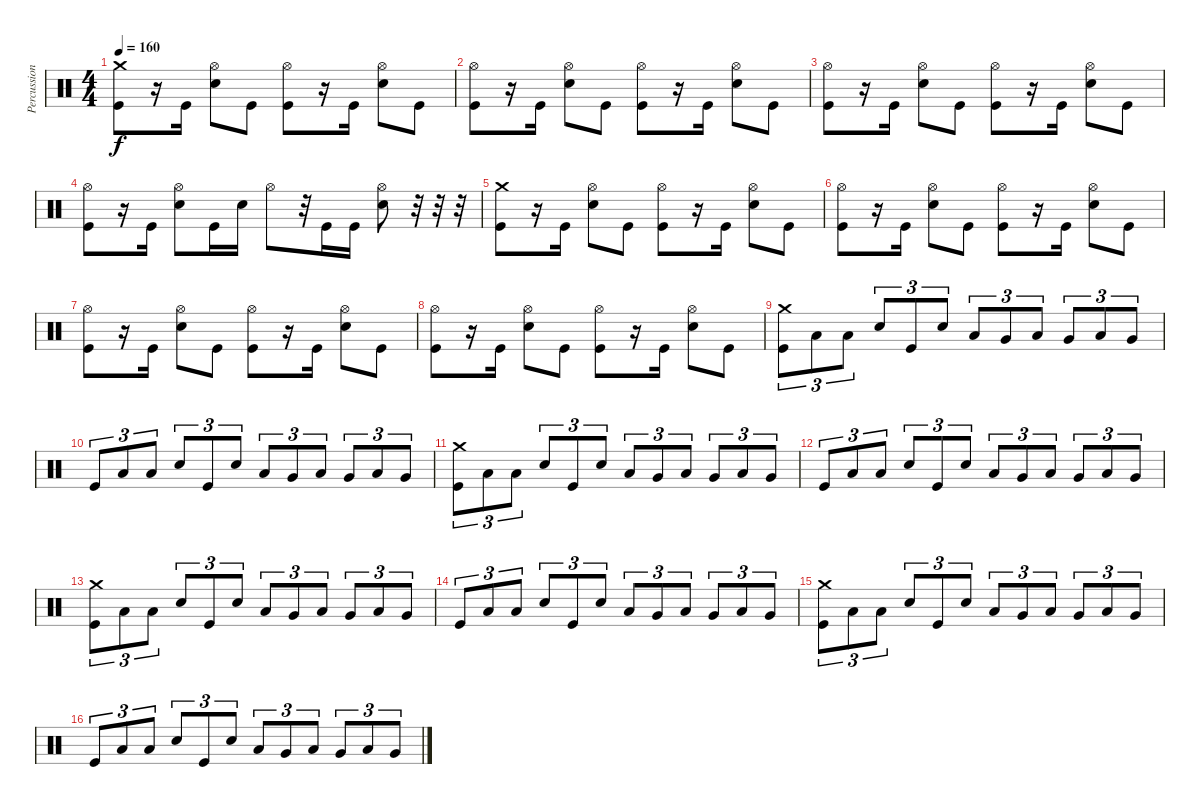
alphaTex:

\track ("Percussion" "Percussion") {instrument percussion}
\staff {score}
\articulation defaults
\ts (4 4)
\tempo 160
\clef neutral
\ks c
("Crash medium (hit)" "Kick (hit)").8{dy f} r.16 "Kick (hit)".16 ("Hi-Hat (open)" "Electric Snare (hit)").8 "Kick (hit)".8 ("Hi-Hat (open)" "Kick (hit)").8 r.16 "Kick (hit)".16 ("Hi-Hat (open)" "Electric Snare (hit)").8 "Kick (hit)".8 |
("Hi-Hat (open)" "Kick (hit)").8 r.16 "Kick (hit)".16 ("Hi-Hat (open)" "Electric Snare (hit)").8 "Kick (hit)".8 ("Hi-Hat (open)" "Kick (hit)").8 r.16 "Kick (hit)".16 ("Hi-Hat (open)" "Electric Snare (hit)").8 "Kick (hit)".8 |
("Hi-Hat (open)" "Kick (hit)").8 r.16 "Kick (hit)".16 ("Hi-Hat (open)" "Electric Snare (hit)").8 "Kick (hit)".8 ("Hi-Hat (open)" "Kick (hit)").8 r.16 "Kick (hit)".16 ("Hi-Hat (open)" "Electric Snare (hit)").8 "Kick (hit)".8 |
("Hi-Hat (open)" "Kick (hit)").8 r.16 "Kick (hit)".16 ("Hi-Hat (open)" "Electric Snare (hit)").8 "Kick (hit)".16 "Electric Snare (hit)".16 "Hi-Hat (open)".8 r.32 "Kick (hit)".16 "Kick (hit)".16 ("Hi-Hat (open)" "Electric Snare (hit)").8 r.32 r.32 r.32 |
("Crash medium (hit)" "Kick (hit)").8 r.16 "Kick (hit)".16 ("Hi-Hat (open)" "Electric Snare (hit)").8 "Kick (hit)".8 ("Hi-Hat (open)" "Kick (hit)").8 r.16 "Kick (hit)".16 ("Hi-Hat (open)" "Electric Snare (hit)").8 "Kick (hit)".8 |
("Hi-Hat (open)" "Kick (hit)").8 r.16 "Kick (hit)".16 ("Hi-Hat (open)" "Electric Snare (hit)").8 "Kick (hit)".8 ("Hi-Hat (open)" "Kick (hit)").8 r.16 "Kick (hit)".16 ("Hi-Hat (open)" "Electric Snare (hit)").8 "Kick (hit)".8 |
("Hi-Hat (open)" "Kick (hit)").8 r.16 "Kick (hit)".16 ("Hi-Hat (open)" "Electric Snare (hit)").8 "Kick (hit)".8 ("Hi-Hat (open)" "Kick (hit)").8 r.16 "Kick (hit)".16 ("Hi-Hat (open)" "Electric Snare (hit)").8 "Kick (hit)".8 |
("Hi-Hat (open)" "Kick (hit)").8 r.16 "Kick (hit)".16 ("Hi-Hat (open)" "Electric Snare (hit)").8 "Kick (hit)".8 ("Hi-Hat (open)" "Kick (hit)").8 r.16 "Kick (hit)".16 ("Hi-Hat (open)" "Electric Snare (hit)").8 "Kick (hit)".8 |
("Crash medium (hit)" "Kick (hit)").8{tu (3 2)} "Low Floor Tom (hit)".8{tu (3 2)} "Low Floor Tom (hit)".8{tu (3 2)} "Electric Snare (hit)".8{tu (3 2)} "Kick (hit)".8{tu (3 2)} "Electric Snare (hit)".8{tu (3 2)} "Low Floor Tom (hit)".8{tu (3 2)} "Very Low Tom (hit)".8{tu (3 2)} "Low Floor Tom (hit)".8{tu (3 2)} "Very Low Tom (hit)".8{tu (3 2)} "Low Floor Tom (hit)".8{tu (3 2)} "Very Low Tom (hit)".8{tu (3 2)} |
"Kick (hit)".8{tu (3 2)} "Low Floor Tom (hit)".8{tu (3 2)} "Low Floor Tom (hit)".8{tu (3 2)} "Electric Snare (hit)".8{tu (3 2)} "Kick (hit)".8{tu (3 2)} "Electric Snare (hit)".8{tu (3 2)} "Low Floor Tom (hit)".8{tu (3 2)} "Very Low Tom (hit)".8{tu (3 2)} "Low Floor Tom (hit)".8{tu (3 2)} "Very Low Tom (hit)".8{tu (3 2)} "Low Floor Tom (hit)".8{tu (3 2)} "Very Low Tom (hit)".8{tu (3 2)} |
("Crash medium (hit)" "Kick (hit)").8{tu (3 2)} "Low Floor Tom (hit)".8{tu (3 2)} "Low Floor Tom (hit)".8{tu (3 2)} "Electric Snare (hit)".8{tu (3 2)} "Kick (hit)".8{tu (3 2)} "Electric Snare (hit)".8{tu (3 2)} "Low Floor Tom (hit)".8{tu (3 2)} "Very Low Tom (hit)".8{tu (3 2)} "Low Floor Tom (hit)".8{tu (3 2)} "Very Low Tom (hit)".8{tu (3 2)} "Low Floor Tom (hit)".8{tu (3 2)} "Very Low Tom (hit)".8{tu (3 2)} |
"Kick (hit)".8{tu (3 2)} "Low Floor Tom (hit)".8{tu (3 2)} "Low Floor Tom (hit)".8{tu (3 2)} "Electric Snare (hit)".8{tu (3 2)} "Kick (hit)".8{tu (3 2)} "Electric Snare (hit)".8{tu (3 2)} "Low Floor Tom (hit)".8{tu (3 2)} "Very Low Tom (hit)".8{tu (3 2)} "Low Floor Tom (hit)".8{tu (3 2)} "Very Low Tom (hit)".8{tu (3 2)} "Low Floor Tom (hit)".8{tu (3 2)} "Very Low Tom (hit)".8{tu (3 2)} |
("Crash medium (hit)" "Kick (hit)").8{tu (3 2)} "Low Floor Tom (hit)".8{tu (3 2)} "Low Floor Tom (hit)".8{tu (3 2)} "Electric Snare (hit)".8{tu (3 2)} "Kick (hit)".8{tu (3 2)} "Electric Snare (hit)".8{tu (3 2)} "Low Floor Tom (hit)".8{tu (3 2)} "Very Low Tom (hit)".8{tu (3 2)} "Low Floor Tom (hit)".8{tu (3 2)} "Very Low Tom (hit)".8{tu (3 2)} "Low Floor Tom (hit)".8{tu (3 2)} "Very Low Tom (hit)".8{tu (3 2)} |
"Kick (hit)".8{tu (3 2)} "Low Floor Tom (hit)".8{tu (3 2)} "Low Floor Tom (hit)".8{tu (3 2)} "Electric Snare (hit)".8{tu (3 2)} "Kick (hit)".8{tu (3 2)} "Electric Snare (hit)".8{tu (3 2)} "Low Floor Tom (hit)".8{tu (3 2)} "Very Low Tom (hit)".8{tu (3 2)} "Low Floor Tom (hit)".8{tu (3 2)} "Very Low Tom (hit)".8{tu (3 2)} "Low Floor Tom (hit)".8{tu (3 2)} "Very Low Tom (hit)".8{tu (3 2)} |
("Crash medium (hit)" "Kick (hit)").8{tu (3 2)} "Low Floor Tom (hit)".8{tu (3 2)} "Low Floor Tom (hit)".8{tu (3 2)} "Electric Snare (hit)".8{tu (3 2)} "Kick (hit)".8{tu (3 2)} "Electric Snare (hit)".8{tu (3 2)} "Low Floor Tom (hit)".8{tu (3 2)} "Very Low Tom (hit)".8{tu (3 2)} "Low Floor Tom (hit)".8{tu (3 2)} "Very Low Tom (hit)".8{tu (3 2)} "Low Floor Tom (hit)".8{tu (3 2)} "Very Low Tom (hit)".8{tu (3 2)} |
"Kick (hit)".8{tu (3 2)} "Low Floor Tom (hit)".8{tu (3 2)} "Low Floor Tom (hit)".8{tu (3 2)} "Electric Snare (hit)".8{tu (3 2)} "Kick (hit)".8{tu (3 2)} "Electric Snare (hit)".8{tu (3 2)} "Low Floor Tom (hit)".8{tu (3 2)} "Very Low Tom (hit)".8{tu (3 2)} "Low Floor Tom (hit)".8{tu (3 2)} "Very Low Tom (hit)".8{tu (3 2)} "Low Floor Tom (hit)".8{tu (3 2)} "Very Low Tom (hit)".8{tu (3 2)}
